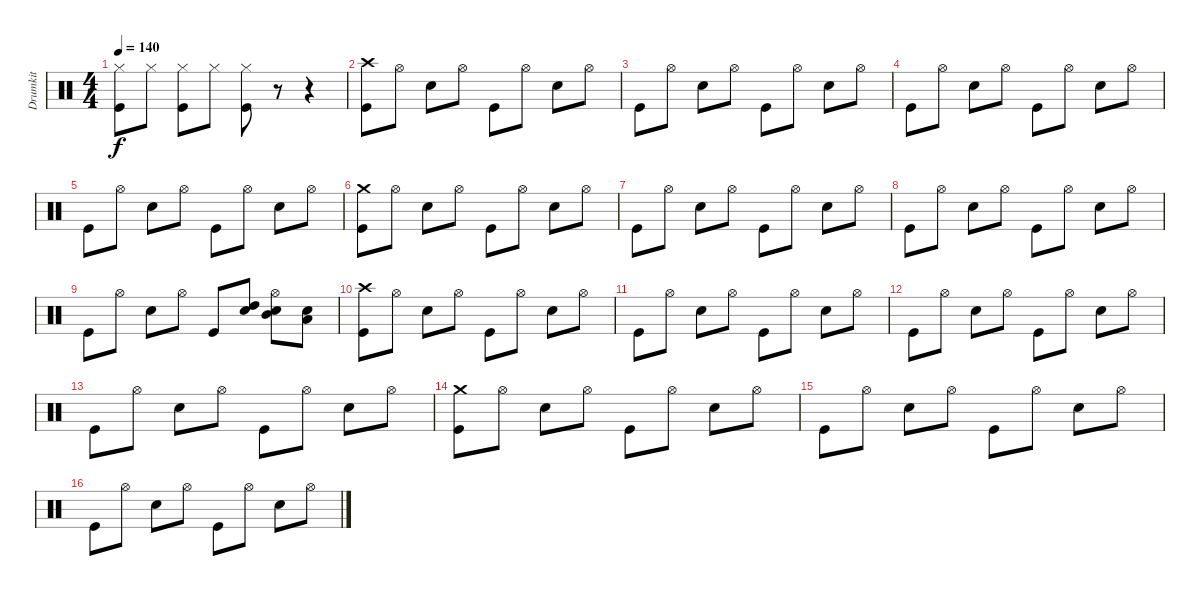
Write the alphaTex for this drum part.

\track ("Drumkit" "Drumkit") {instrument percussion}
\staff {score}
\articulation defaults
\ts (4 4)
\tempo 140
\clef neutral
\ks c
("Hi-Hat (closed)" "Kick (hit)").8{dy f} "Hi-Hat (closed)".8 ("Hi-Hat (closed)" "Kick (hit)").8 "Hi-Hat (closed)".8 ("Hi-Hat (closed)" "Kick (hit)").8 r.8 r.4 |
("Crash high (hit)" "Kick (hit)").8 "Hi-Hat (open)".8 "Snare (hit) 2".8 "Hi-Hat (open)".8 "Kick (hit)".8 "Hi-Hat (open)".8 "Snare (hit) 2".8 "Hi-Hat (open)".8 |
"Kick (hit)".8 "Hi-Hat (open)".8 "Snare (hit) 2".8 "Hi-Hat (open)".8 "Kick (hit)".8 "Hi-Hat (open)".8 "Snare (hit) 2".8 "Hi-Hat (open)".8 |
"Kick (hit)".8 "Hi-Hat (open)".8 "Snare (hit) 2".8 "Hi-Hat (open)".8 "Kick (hit)".8 "Hi-Hat (open)".8 "Snare (hit) 2".8 "Hi-Hat (open)".8 |
"Kick (hit)".8 "Hi-Hat (open)".8 "Snare (hit) 2".8 "Hi-Hat (open)".8 "Kick (hit)".8 "Hi-Hat (open)".8 "Snare (hit) 2".8 "Hi-Hat (open)".8 |
("Crash medium (hit)" "Kick (hit)").8 "Hi-Hat (open)".8 "Snare (hit) 2".8 "Hi-Hat (open)".8 "Kick (hit)".8 "Hi-Hat (open)".8 "Snare (hit) 2".8 "Hi-Hat (open)".8 |
"Kick (hit)".8 "Hi-Hat (open)".8 "Snare (hit) 2".8 "Hi-Hat (open)".8 "Kick (hit)".8 "Hi-Hat (open)".8 "Snare (hit) 2".8 "Hi-Hat (open)".8 |
"Kick (hit)".8 "Hi-Hat (open)".8 "Snare (hit) 2".8 "Hi-Hat (open)".8 "Kick (hit)".8 "Hi-Hat (open)".8 "Snare (hit) 2".8 "Hi-Hat (open)".8 |
"Kick (hit)".8 "Hi-Hat (open)".8 "Snare (hit) 2".8 "Hi-Hat (open)".8 "Kick (hit)".8 ("High Tom (hit)" "Snare (hit) 2").8 ("Hi-Hat (open)" "Mid Tom (hit)" "Snare (hit) 2").8 ("Low Tom (hit)" "Snare (hit) 2").8 |
("Crash high (hit)" "Kick (hit)").8 "Hi-Hat (open)".8 "Snare (hit) 2".8 "Hi-Hat (open)".8 "Kick (hit)".8 "Hi-Hat (open)".8 "Snare (hit) 2".8 "Hi-Hat (open)".8 |
"Kick (hit)".8 "Hi-Hat (open)".8 "Snare (hit) 2".8 "Hi-Hat (open)".8 "Kick (hit)".8 "Hi-Hat (open)".8 "Snare (hit) 2".8 "Hi-Hat (open)".8 |
"Kick (hit)".8 "Hi-Hat (open)".8 "Snare (hit) 2".8 "Hi-Hat (open)".8 "Kick (hit)".8 "Hi-Hat (open)".8 "Snare (hit) 2".8 "Hi-Hat (open)".8 |
"Kick (hit)".8 "Hi-Hat (open)".8 "Snare (hit) 2".8 "Hi-Hat (open)".8 "Kick (hit)".8 "Hi-Hat (open)".8 "Snare (hit) 2".8 "Hi-Hat (open)".8 |
("Crash medium (hit)" "Kick (hit)").8 "Hi-Hat (open)".8 "Snare (hit) 2".8 "Hi-Hat (open)".8 "Kick (hit)".8 "Hi-Hat (open)".8 "Snare (hit) 2".8 "Hi-Hat (open)".8 |
"Kick (hit)".8 "Hi-Hat (open)".8 "Snare (hit) 2".8 "Hi-Hat (open)".8 "Kick (hit)".8 "Hi-Hat (open)".8 "Snare (hit) 2".8 "Hi-Hat (open)".8 |
"Kick (hit)".8 "Hi-Hat (open)".8 "Snare (hit) 2".8 "Hi-Hat (open)".8 "Kick (hit)".8 "Hi-Hat (open)".8 "Snare (hit) 2".8 "Hi-Hat (open)".8
